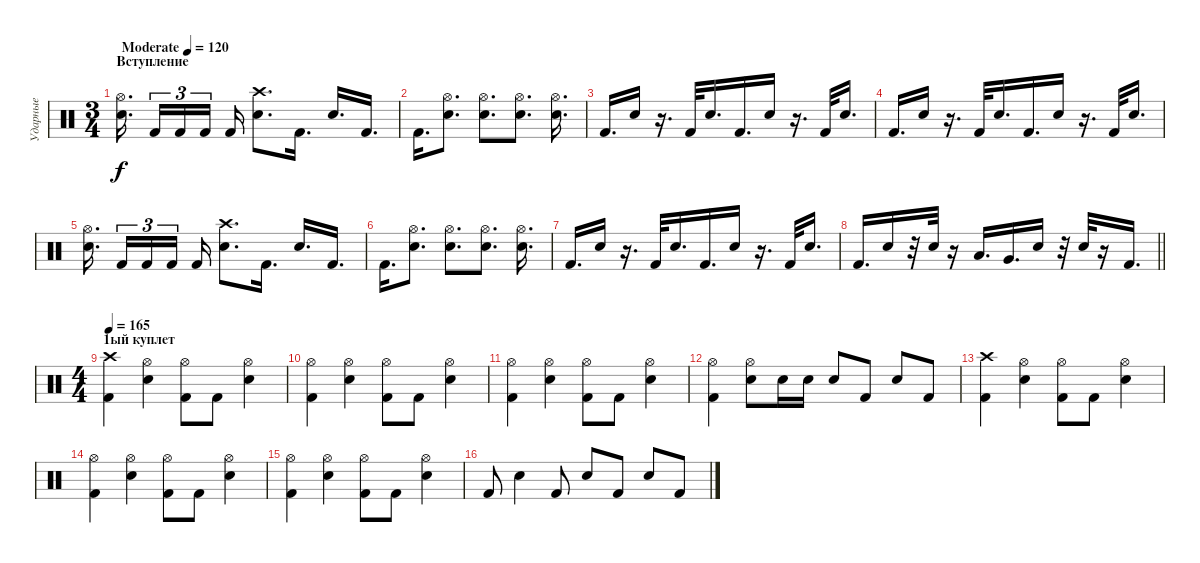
\track ("Ударные" "Ударные") {instrument percussion}
\staff {score}
\articulation defaults
\ts (3 4)
\section ("" "Вступление")
\tempo (120 "Moderate")
\clef neutral
\ks c
("Electric Snare (hit)" "Hi-Hat (open)").16{d dy f beam splitsecondary} "Kick (hit) 2".16{tu (3 2)} "Kick (hit) 2".16{tu (3 2)} "Kick (hit) 2".16{tu (3 2) beam splitsecondary} "Kick (hit) 2".16 ("Electric Snare (hit)" "Crash high (hit)").8{d} "Kick (hit) 2".16{d} "Electric Snare (hit)".16{d} "Kick (hit) 2".16{d} |
"Kick (hit) 2".16{d} ("Electric Snare (hit)" "Hi-Hat (open)").8{d} ("Electric Snare (hit)" "Hi-Hat (open)").8{d} ("Electric Snare (hit)" "Hi-Hat (open)").8{d} ("Electric Snare (hit)" "Hi-Hat (open)").16{d} |
"Kick (hit) 2".16{d} "Electric Snare (hit)".16 r.16{d} "Kick (hit) 2".32 "Electric Snare (hit)".16{d} "Kick (hit) 2".16{d} "Electric Snare (hit)".16 r.16{d} "Kick (hit) 2".32 "Electric Snare (hit)".16{d} |
"Kick (hit) 2".16{d} "Electric Snare (hit)".16 r.16{d} "Kick (hit) 2".32 "Electric Snare (hit)".16{d} "Kick (hit) 2".16{d} "Electric Snare (hit)".16 r.16{d} "Kick (hit) 2".32 "Electric Snare (hit)".16{d} |
("Electric Snare (hit)" "Hi-Hat (open)").16{d beam splitsecondary} "Kick (hit) 2".16{tu (3 2)} "Kick (hit) 2".16{tu (3 2)} "Kick (hit) 2".16{tu (3 2) beam splitsecondary} "Kick (hit) 2".16 ("Electric Snare (hit)" "Crash high (hit)").8{d} "Kick (hit) 2".16{d} "Electric Snare (hit)".16{d} "Kick (hit) 2".16{d} |
"Kick (hit) 2".16{d} ("Electric Snare (hit)" "Hi-Hat (open)").8{d} ("Electric Snare (hit)" "Hi-Hat (open)").8{d} ("Electric Snare (hit)" "Hi-Hat (open)").8{d} ("Electric Snare (hit)" "Hi-Hat (open)").16{d} |
"Kick (hit) 2".16{d} "Electric Snare (hit)".16 r.16{d} "Kick (hit) 2".32 "Electric Snare (hit)".16{d} "Kick (hit) 2".16{d} "Electric Snare (hit)".16 r.16{d} "Kick (hit) 2".32 "Electric Snare (hit)".16{d} |
\barLineRight lightlight "Kick (hit) 2".16{d} "Electric Snare (hit)".16
r.32 "Electric Snare (hit)".32 r.16 "Low Tom (hit)".16{d} "Very Low Tom (hit)".16{d} "Electric Snare (hit)".16 r.32 "Electric Snare (hit)".32 r.16 "Kick (hit) 2".16{d} |
\ts (4 4)
\section ("" "1ый куплет")
\tempo 165
("Kick (hit) 2" "Crash high (hit)").4 ("Electric Snare (hit)" "Hi-Hat (open)").4 ("Kick (hit) 2" "Hi-Hat (open)").8 "Kick (hit) 2".8 ("Electric Snare (hit)" "Hi-Hat (open)").4 |
("Kick (hit) 2" "Hi-Hat (open)").4 ("Electric Snare (hit)" "Hi-Hat (open)").4 ("Kick (hit) 2" "Hi-Hat (open)").8 "Kick (hit) 2".8 ("Electric Snare (hit)" "Hi-Hat (open)").4 |
("Kick (hit) 2" "Hi-Hat (open)").4 ("Electric Snare (hit)" "Hi-Hat (open)").4 ("Kick (hit) 2" "Hi-Hat (open)").8 "Kick (hit) 2".8 ("Electric Snare (hit)" "Hi-Hat (open)").4 |
("Kick (hit) 2" "Hi-Hat (open)").4 ("Electric Snare (hit)" "Hi-Hat (open)").8 "Electric Snare (hit)".16 "Electric Snare (hit)".16 "Electric Snare (hit)".8 "Kick (hit) 2".8 "Electric Snare (hit)".8 "Kick (hit) 2".8 |
("Kick (hit) 2" "Crash high (hit)").4 ("Electric Snare (hit)" "Hi-Hat (open)").4 ("Kick (hit) 2" "Hi-Hat (open)").8 "Kick (hit) 2".8 ("Electric Snare (hit)" "Hi-Hat (open)").4 |
("Kick (hit) 2" "Hi-Hat (open)").4 ("Electric Snare (hit)" "Hi-Hat (open)").4 ("Kick (hit) 2" "Hi-Hat (open)").8 "Kick (hit) 2".8 ("Electric Snare (hit)" "Hi-Hat (open)").4 |
("Kick (hit) 2" "Hi-Hat (open)").4 ("Electric Snare (hit)" "Hi-Hat (open)").4 ("Kick (hit) 2" "Hi-Hat (open)").8 "Kick (hit) 2".8 ("Electric Snare (hit)" "Hi-Hat (open)").4 |
"Kick (hit) 2".8 "Electric Snare (hit)".4 "Kick (hit) 2".8 "Electric Snare (hit)".8 "Kick (hit) 2".8 "Electric Snare (hit)".8 "Kick (hit) 2".8
